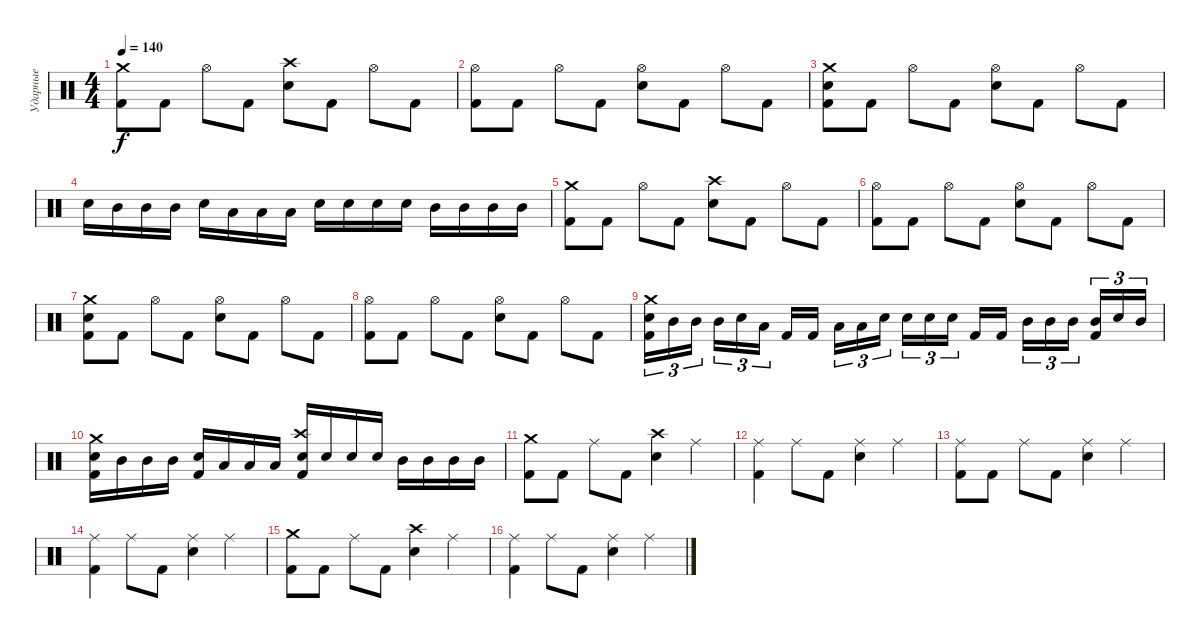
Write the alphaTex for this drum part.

\track ("Ударные" "Ударные") {instrument percussion}
\staff {score}
\articulation defaults
\ts (4 4)
\tempo 140
\clef neutral
\ks c
("Crash medium (hit)" "Kick (hit) 2").8{dy f} "Kick (hit) 2".8 "Hi-Hat (open)".8 "Kick (hit) 2".8 ("Crash high (hit)" "Snare (hit) 2").8 "Kick (hit) 2".8 "Hi-Hat (open)".8 "Kick (hit) 2".8 |
("Hi-Hat (open)" "Kick (hit) 2").8 "Kick (hit) 2".8 "Hi-Hat (open)".8 "Kick (hit) 2".8 ("Hi-Hat (open)" "Snare (hit) 2").8 "Kick (hit) 2".8 "Hi-Hat (open)".8 "Kick (hit) 2".8 |
("Crash medium (hit)" "Snare (hit) 2" "Kick (hit) 2").8 "Kick (hit) 2".8 "Hi-Hat (open)".8 "Kick (hit) 2".8 ("Hi-Hat (open)" "Snare (hit) 2").8 "Kick (hit) 2".8 "Hi-Hat (open)".8 "Kick (hit) 2".8 |
"Electric Snare (hit)".16 "Mid Tom (hit)".16 "Mid Tom (hit)".16 "Mid Tom (hit)".16 "Electric Snare (hit)".16 "Low Tom (hit)".16 "Low Tom (hit)".16 "Low Tom (hit)".16 "Electric Snare (hit)".16 "Electric Snare (hit)".16 "Electric Snare (hit)".16 "Electric Snare (hit)".16 "Mid Tom (hit)".16 "Mid Tom (hit)".16 "Mid Tom (hit)".16 "Mid Tom (hit)".16 |
("Crash medium (hit)" "Kick (hit) 2").8 "Kick (hit) 2".8 "Hi-Hat (open)".8 "Kick (hit) 2".8 ("Crash high (hit)" "Snare (hit) 2").8 "Kick (hit) 2".8 "Hi-Hat (open)".8 "Kick (hit) 2".8 |
("Hi-Hat (open)" "Kick (hit) 2").8 "Kick (hit) 2".8 "Hi-Hat (open)".8 "Kick (hit) 2".8 ("Hi-Hat (open)" "Snare (hit) 2").8 "Kick (hit) 2".8 "Hi-Hat (open)".8 "Kick (hit) 2".8 |
("Crash medium (hit)" "Snare (hit) 2" "Kick (hit) 2").8 "Kick (hit) 2".8 "Hi-Hat (open)".8 "Kick (hit) 2".8 ("Hi-Hat (open)" "Snare (hit) 2").8 "Kick (hit) 2".8 "Hi-Hat (open)".8 "Kick (hit) 2".8 |
("Hi-Hat (open)" "Kick (hit) 2").8 "Kick (hit) 2".8 "Hi-Hat (open)".8 "Kick (hit) 2".8 ("Hi-Hat (open)" "Snare (hit) 2").8 "Kick (hit) 2".8 "Hi-Hat (open)".8 "Kick (hit) 2".8 |
("Electric Snare (hit)" "Kick (hit) 2" "Crash medium (hit)").16{tu (3 2)} "Mid Tom (hit)".16{tu (3 2)} "Mid Tom (hit)".16{tu (3 2)} "Mid Tom (hit)".16{tu (3 2)} "Electric Snare (hit)".16{tu (3 2)} "Low Tom (hit)".16{tu (3 2)} "Kick (hit) 2".16 "Kick (hit) 2".16 "Low Tom (hit)".16{tu (3 2)} "Low Tom (hit)".16{tu (3 2)} "Electric Snare (hit)".16{tu (3 2)} "Electric Snare (hit)".16{tu (3 2)} "Electric Snare (hit)".16{tu (3 2)} "Electric Snare (hit)".16{tu (3 2)} "Kick (hit) 2".16 "Kick (hit) 2".16 "Mid Tom (hit)".16{tu (3 2)} "Mid Tom (hit)".16{tu (3 2)} "Mid Tom (hit)".16{tu (3 2)} ("Mid Tom (hit)" "Kick (hit) 2").16{tu (3 2)} "Electric Snare (hit)".16{tu (3 2)} "Mid Tom (hit)".16{tu (3 2)} |
("Electric Snare (hit)" "Kick (hit) 2" "Crash medium (hit)").16 "Mid Tom (hit)".16 "Mid Tom (hit)".16 "Mid Tom (hit)".16 ("Electric Snare (hit)" "Kick (hit) 2").16 "Low Tom (hit)".16 "Low Tom (hit)".16 "Low Tom (hit)".16 ("Electric Snare (hit)" "Kick (hit) 2" "Crash high (hit)").16 "Electric Snare (hit)".16 "Electric Snare (hit)".16 "Electric Snare (hit)".16 "Mid Tom (hit)".16 "Mid Tom (hit)".16 "Mid Tom (hit)".16 "Mid Tom (hit)".16 |
("Crash medium (hit)" "Kick (hit) 2").8 "Kick (hit) 2".8 "Ride (middle)".8 "Kick (hit) 2".8 ("Crash high (hit)" "Snare (hit) 2").4 "Ride (middle)".4 |
("Ride (middle)" "Kick (hit) 2").4 "Ride (middle)".8 "Kick (hit) 2".8 ("Ride (middle)" "Snare (hit) 2").4 "Ride (middle)".4 |
("Ride (middle)" "Kick (hit) 2").8 "Kick (hit) 2".8 "Ride (middle)".8 "Kick (hit) 2".8 ("Ride (middle)" "Snare (hit) 2").4 "Ride (middle)".4 |
("Ride (middle)" "Kick (hit) 2").4 "Ride (middle)".8 "Kick (hit) 2".8 ("Ride (middle)" "Snare (hit) 2").4 "Ride (middle)".4 |
("Crash medium (hit)" "Kick (hit) 2").8 "Kick (hit) 2".8 "Ride (middle)".8 "Kick (hit) 2".8 ("Crash high (hit)" "Snare (hit) 2").4 "Ride (middle)".4 |
("Ride (middle)" "Kick (hit) 2").4 "Ride (middle)".8 "Kick (hit) 2".8 ("Ride (middle)" "Snare (hit) 2").4 "Ride (middle)".4
